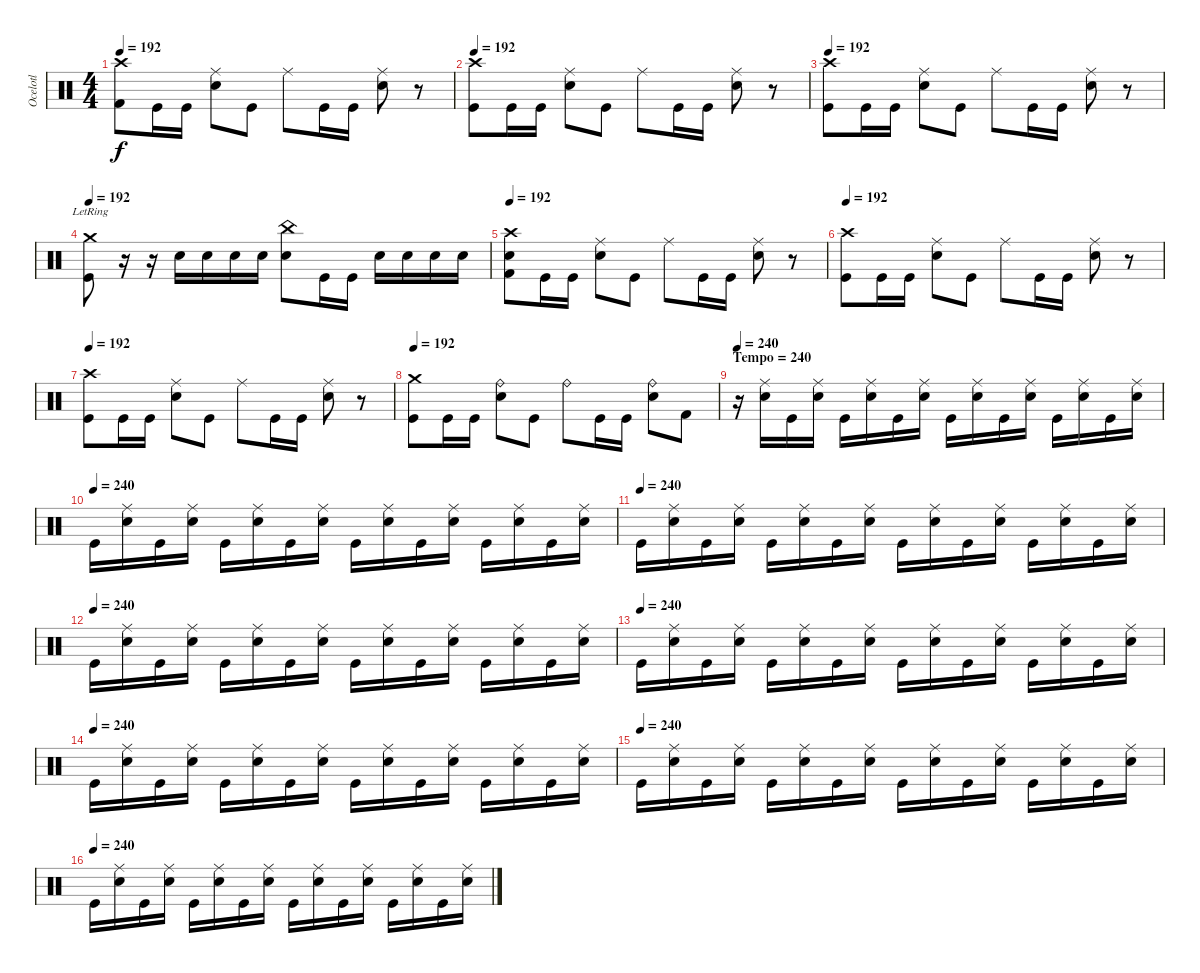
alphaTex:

\track ("Ocelotl" "Ocelotl") {instrument percussion}
\staff {score}
\articulation defaults
\ts (4 4)
\tempo 192
\clef neutral
\ks c
("Crash high (hit)" "Kick (hit) 2").8{dy f} "Kick (hit)".16 "Kick (hit)".16 ("Ride (middle)" "Snare (hit) 2").8 "Kick (hit)".8 "Ride (middle)".8 "Kick (hit)".16 "Kick (hit)".16 ("Ride (middle)" "Snare (hit) 2").8 r.8 |
\tempo 192
("Crash high (hit)" "Kick (hit)").8 "Kick (hit)".16 "Kick (hit)".16 ("Ride (middle)" "Snare (hit) 2").8 "Kick (hit)".8 "Ride (middle)".8 "Kick (hit)".16 "Kick (hit)".16 ("Ride (middle)" "Snare (hit) 2").8 r.8 |
\tempo 192
("Crash high (hit)" "Kick (hit)").8 "Kick (hit)".16 "Kick (hit)".16 ("Ride (middle)" "Snare (hit) 2").8 "Kick (hit)".8 "Ride (middle)".8 "Kick (hit)".16 "Kick (hit)".16 ("Ride (middle)" "Snare (hit) 2").8 r.8 |
\tempo 192
("Crash medium (hit)"{lr} "Kick (hit)").8 r.16 r.16 "Snare (hit) 2".16 "Snare (hit) 2".16 "Snare (hit) 2".16 "Snare (hit) 2".16 ("Snare (hit) 2" "China (hit)").8 "Kick (hit)".16 "Kick (hit)".16 "Snare (hit) 2".16 "Snare (hit) 2".16 "Snare (hit) 2".16 "Snare (hit) 2".16 |
\tempo 192
("Crash high (hit)" "Kick (hit) 2" "Snare (hit) 2").8 "Kick (hit)".16 "Kick (hit)".16 ("Ride (middle)" "Snare (hit) 2").8 "Kick (hit)".8 "Ride (middle)".8 "Kick (hit)".16 "Kick (hit)".16 ("Ride (middle)" "Snare (hit) 2").8 r.8 |
\tempo 192
("Crash high (hit)" "Kick (hit)").8 "Kick (hit)".16 "Kick (hit)".16 ("Ride (middle)" "Snare (hit) 2").8 "Kick (hit)".8 "Ride (middle)".8 "Kick (hit)".16 "Kick (hit)".16 ("Ride (middle)" "Snare (hit) 2").8 r.8 |
\tempo 192
("Crash high (hit)" "Kick (hit)").8 "Kick (hit)".16 "Kick (hit)".16 ("Ride (middle)" "Snare (hit) 2").8 "Kick (hit)".8 "Ride (middle)".8 "Kick (hit)".16 "Kick (hit)".16 ("Ride (middle)" "Snare (hit) 2").8 r.8 |
\tempo 192
("Crash medium (hit)" "Kick (hit)").8 "Kick (hit)".16 "Kick (hit)".16 ("Ride (bell)" "Snare (hit) 2").8 "Kick (hit)".8 "Ride (bell)".8 "Kick (hit)".16 "Kick (hit)".16 ("Ride (bell)" "Snare (hit) 2").8 "Kick (hit) 2".8 |
\section ("" "Tempo = 240")
\tempo 240
r.16 ("Ride (middle)" "Snare (hit) 2").16 "Kick (hit)".16 ("Ride (middle)" "Snare (hit) 2").16 "Kick (hit)".16 ("Ride (middle)" "Snare (hit) 2").16 "Kick (hit)".16 ("Ride (middle)" "Snare (hit) 2").16 "Kick (hit)".16 ("Ride (middle)" "Snare (hit) 2").16 "Kick (hit)".16 ("Ride (middle)" "Snare (hit) 2").16 "Kick (hit)".16 ("Ride (middle)" "Snare (hit) 2").16 "Kick (hit)".16 ("Ride (middle)" "Snare (hit) 2").16 |
\tempo (240)
"Kick (hit)".16 ("Ride (middle)" "Snare (hit) 2").16 "Kick (hit)".16 ("Ride (middle)" "Snare (hit) 2").16 "Kick (hit)".16 ("Ride (middle)" "Snare (hit) 2").16 "Kick (hit)".16 ("Ride (middle)" "Snare (hit) 2").16 "Kick (hit)".16 ("Ride (middle)" "Snare (hit) 2").16 "Kick (hit)".16 ("Ride (middle)" "Snare (hit) 2").16 "Kick (hit)".16 ("Ride (middle)" "Snare (hit) 2").16 "Kick (hit)".16 ("Ride (middle)" "Snare (hit) 2").16 |
\tempo (240)
"Kick (hit)".16 ("Ride (middle)" "Snare (hit) 2").16 "Kick (hit)".16 ("Ride (middle)" "Snare (hit) 2").16 "Kick (hit)".16 ("Ride (middle)" "Snare (hit) 2").16 "Kick (hit)".16 ("Ride (middle)" "Snare (hit) 2").16 "Kick (hit)".16 ("Ride (middle)" "Snare (hit) 2").16 "Kick (hit)".16 ("Ride (middle)" "Snare (hit) 2").16 "Kick (hit)".16 ("Ride (middle)" "Snare (hit) 2").16 "Kick (hit)".16 ("Ride (middle)" "Snare (hit) 2").16 |
\tempo (240)
"Kick (hit)".16 ("Ride (middle)" "Snare (hit) 2").16 "Kick (hit)".16 ("Ride (middle)" "Snare (hit) 2").16 "Kick (hit)".16 ("Ride (middle)" "Snare (hit) 2").16 "Kick (hit)".16 ("Ride (middle)" "Snare (hit) 2").16 "Kick (hit)".16 ("Ride (middle)" "Snare (hit) 2").16 "Kick (hit)".16 ("Ride (middle)" "Snare (hit) 2").16 "Kick (hit)".16 ("Ride (middle)" "Snare (hit) 2").16 "Kick (hit)".16 ("Ride (middle)" "Snare (hit) 2").16 |
\tempo (240)
"Kick (hit)".16 ("Ride (middle)" "Snare (hit) 2").16 "Kick (hit)".16 ("Ride (middle)" "Snare (hit) 2").16 "Kick (hit)".16 ("Ride (middle)" "Snare (hit) 2").16 "Kick (hit)".16 ("Ride (middle)" "Snare (hit) 2").16 "Kick (hit)".16 ("Ride (middle)" "Snare (hit) 2").16 "Kick (hit)".16 ("Ride (middle)" "Snare (hit) 2").16 "Kick (hit)".16 ("Ride (middle)" "Snare (hit) 2").16 "Kick (hit)".16 ("Ride (middle)" "Snare (hit) 2").16 |
\tempo (240)
"Kick (hit)".16 ("Ride (middle)" "Snare (hit) 2").16 "Kick (hit)".16 ("Ride (middle)" "Snare (hit) 2").16 "Kick (hit)".16 ("Ride (middle)" "Snare (hit) 2").16 "Kick (hit)".16 ("Ride (middle)" "Snare (hit) 2").16 "Kick (hit)".16 ("Ride (middle)" "Snare (hit) 2").16 "Kick (hit)".16 ("Ride (middle)" "Snare (hit) 2").16 "Kick (hit)".16 ("Ride (middle)" "Snare (hit) 2").16 "Kick (hit)".16 ("Ride (middle)" "Snare (hit) 2").16 |
\tempo (240)
"Kick (hit)".16 ("Ride (middle)" "Snare (hit) 2").16 "Kick (hit)".16 ("Ride (middle)" "Snare (hit) 2").16 "Kick (hit)".16 ("Ride (middle)" "Snare (hit) 2").16 "Kick (hit)".16 ("Ride (middle)" "Snare (hit) 2").16 "Kick (hit)".16 ("Ride (middle)" "Snare (hit) 2").16 "Kick (hit)".16 ("Ride (middle)" "Snare (hit) 2").16 "Kick (hit)".16 ("Ride (middle)" "Snare (hit) 2").16 "Kick (hit)".16 ("Ride (middle)" "Snare (hit) 2").16 |
\tempo (240)
"Kick (hit)".16 ("Ride (middle)" "Snare (hit) 2").16 "Kick (hit)".16 ("Ride (middle)" "Snare (hit) 2").16 "Kick (hit)".16 ("Ride (middle)" "Snare (hit) 2").16 "Kick (hit)".16 ("Ride (middle)" "Snare (hit) 2").16 "Kick (hit)".16 ("Ride (middle)" "Snare (hit) 2").16 "Kick (hit)".16 ("Ride (middle)" "Snare (hit) 2").16 "Kick (hit)".16 ("Ride (middle)" "Snare (hit) 2").16 "Kick (hit)".16 ("Ride (middle)" "Snare (hit) 2").16
